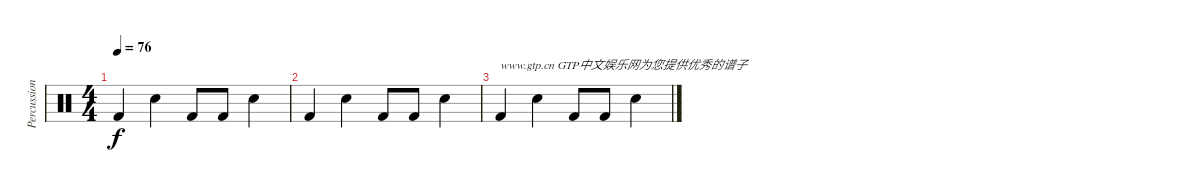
\track ("Percussion" "Percussion") {instrument percussion}
\staff {score}
\articulation defaults
\ts (4 4)
\tempo 76
\clef neutral
\ks c "Kick (hit) 2".4{dy f} "Electric Snare (hit)".4 "Kick (hit) 2".8 "Kick (hit) 2".8 "Electric Snare (hit)".4
|
"Kick (hit) 2".4 "Electric Snare (hit)".4 "Kick (hit) 2".8 "Kick (hit) 2".8 "Electric Snare (hit)".4 |
"Kick (hit) 2".4{txt "www.gtp.cn GTP中文娱乐网为您提供优秀的谱子"} "Electric Snare (hit)".4 "Kick (hit) 2".8 "Kick (hit) 2".8 "Electric Snare (hit)".4
